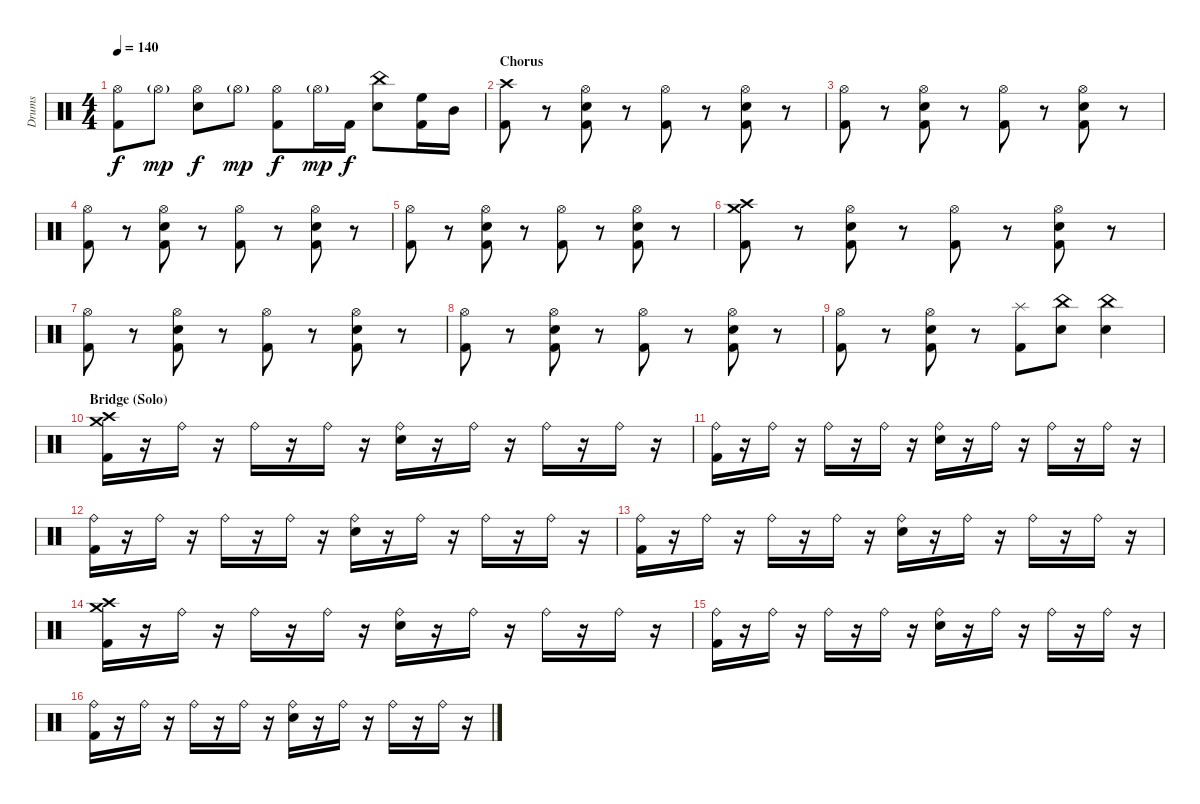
\track ("Drums" "Drums") {instrument percussion}
\staff {score}
\articulation defaults
\ts (4 4)
\tempo 140
\clef neutral
\ks c
("Hi-Hat (open)" "Kick (hit) 2").8{dy f} "Hi-Hat (open)"{g}.8{dy mp} ("Hi-Hat (open)" "Electric Snare (hit)").8{dy f} "Hi-Hat (open)"{g}.8{dy mp} ("Hi-Hat (open)" "Kick (hit) 2").8{dy f} "Hi-Hat (open)"{g}.16{dy mp} "Kick (hit) 2".16{dy f} ("China (hit)" "Electric Snare (hit)").8 ("High Floor Tom (hit)" "Kick (hit) 2").16 "Mid Tom (hit)".16 |
\section ("" "Chorus")
("Crash high (hit)" "Kick (hit) 2").8 r.8 ("Hi-Hat (open)" "Electric Snare (hit)" "Kick (hit) 2").8 r.8 ("Hi-Hat (open)" "Kick (hit) 2").8 r.8 ("Hi-Hat (open)" "Electric Snare (hit)" "Kick (hit) 2").8 r.8 |
("Hi-Hat (open)" "Kick (hit) 2").8 r.8 ("Hi-Hat (open)" "Electric Snare (hit)" "Kick (hit) 2").8 r.8 ("Hi-Hat (open)" "Kick (hit) 2").8 r.8 ("Hi-Hat (open)" "Electric Snare (hit)" "Kick (hit) 2").8 r.8 |
("Hi-Hat (open)" "Kick (hit) 2").8 r.8 ("Hi-Hat (open)" "Electric Snare (hit)" "Kick (hit) 2").8 r.8 ("Hi-Hat (open)" "Kick (hit) 2").8 r.8 ("Hi-Hat (open)" "Electric Snare (hit)" "Kick (hit) 2").8 r.8 |
("Hi-Hat (open)" "Kick (hit) 2").8 r.8 ("Hi-Hat (open)" "Electric Snare (hit)" "Kick (hit) 2").8 r.8 ("Hi-Hat (open)" "Kick (hit) 2").8 r.8 ("Hi-Hat (open)" "Electric Snare (hit)" "Kick (hit) 2").8 r.8 |
("Crash high (hit)" "Crash medium (hit)" "Kick (hit) 2").8 r.8 ("Hi-Hat (open)" "Electric Snare (hit)" "Kick (hit) 2").8 r.8 ("Hi-Hat (open)" "Kick (hit) 2").8 r.8 ("Hi-Hat (open)" "Electric Snare (hit)" "Kick (hit) 2").8 r.8 |
("Hi-Hat (open)" "Kick (hit) 2").8 r.8 ("Hi-Hat (open)" "Electric Snare (hit)" "Kick (hit) 2").8 r.8 ("Hi-Hat (open)" "Kick (hit) 2").8 r.8 ("Hi-Hat (open)" "Electric Snare (hit)" "Kick (hit) 2").8 r.8 |
("Hi-Hat (open)" "Kick (hit) 2").8 r.8 ("Hi-Hat (open)" "Electric Snare (hit)" "Kick (hit) 2").8 r.8 ("Hi-Hat (open)" "Kick (hit) 2").8 r.8 ("Hi-Hat (open)" "Electric Snare (hit)" "Kick (hit) 2").8 r.8 |
("Hi-Hat (open)" "Kick (hit) 2").8 r.8 ("Hi-Hat (open)" "Electric Snare (hit)" "Kick (hit) 2").8 r.8 ("Splash (hit)" "Kick (hit) 2").8 ("China (hit)" "Electric Snare (hit)").8 ("China (hit)" "Electric Snare (hit)").4 |
\section ("" "Bridge (Solo)")
("Crash high (hit)" "Crash medium (hit)" "Kick (hit) 2").16 r.16 "Ride (bell)".16 r.16 "Ride (bell)".16 r.16 "Ride (bell)".16 r.16 ("Ride (bell)" "Electric Snare (hit)").16 r.16 "Ride (bell)".16 r.16 "Ride (bell)".16 r.16 "Ride (bell)".16 r.16 |
("Ride (bell)" "Kick (hit) 2").16 r.16 "Ride (bell)".16 r.16 "Ride (bell)".16 r.16 "Ride (bell)".16 r.16 ("Ride (bell)" "Electric Snare (hit)").16 r.16 "Ride (bell)".16 r.16 "Ride (bell)".16 r.16 "Ride (bell)".16 r.16 |
("Ride (bell)" "Kick (hit) 2").16 r.16 "Ride (bell)".16 r.16 "Ride (bell)".16 r.16 "Ride (bell)".16 r.16 ("Ride (bell)" "Electric Snare (hit)").16 r.16 "Ride (bell)".16 r.16 "Ride (bell)".16 r.16 "Ride (bell)".16 r.16 |
("Ride (bell)" "Kick (hit) 2").16 r.16 "Ride (bell)".16 r.16 "Ride (bell)".16 r.16 "Ride (bell)".16 r.16 ("Ride (bell)" "Electric Snare (hit)").16 r.16 "Ride (bell)".16 r.16 "Ride (bell)".16 r.16 "Ride (bell)".16 r.16 |
("Crash high (hit)" "Crash medium (hit)" "Kick (hit) 2").16 r.16 "Ride (bell)".16 r.16 "Ride (bell)".16 r.16 "Ride (bell)".16 r.16 ("Ride (bell)" "Electric Snare (hit)").16 r.16 "Ride (bell)".16 r.16 "Ride (bell)".16 r.16 "Ride (bell)".16 r.16 |
("Ride (bell)" "Kick (hit) 2").16 r.16 "Ride (bell)".16 r.16 "Ride (bell)".16 r.16 "Ride (bell)".16 r.16 ("Ride (bell)" "Electric Snare (hit)").16 r.16 "Ride (bell)".16 r.16 "Ride (bell)".16 r.16 "Ride (bell)".16 r.16 |
("Ride (bell)" "Kick (hit) 2").16 r.16 "Ride (bell)".16 r.16 "Ride (bell)".16 r.16 "Ride (bell)".16 r.16 ("Ride (bell)" "Electric Snare (hit)").16 r.16 "Ride (bell)".16 r.16 "Ride (bell)".16 r.16 "Ride (bell)".16 r.16
